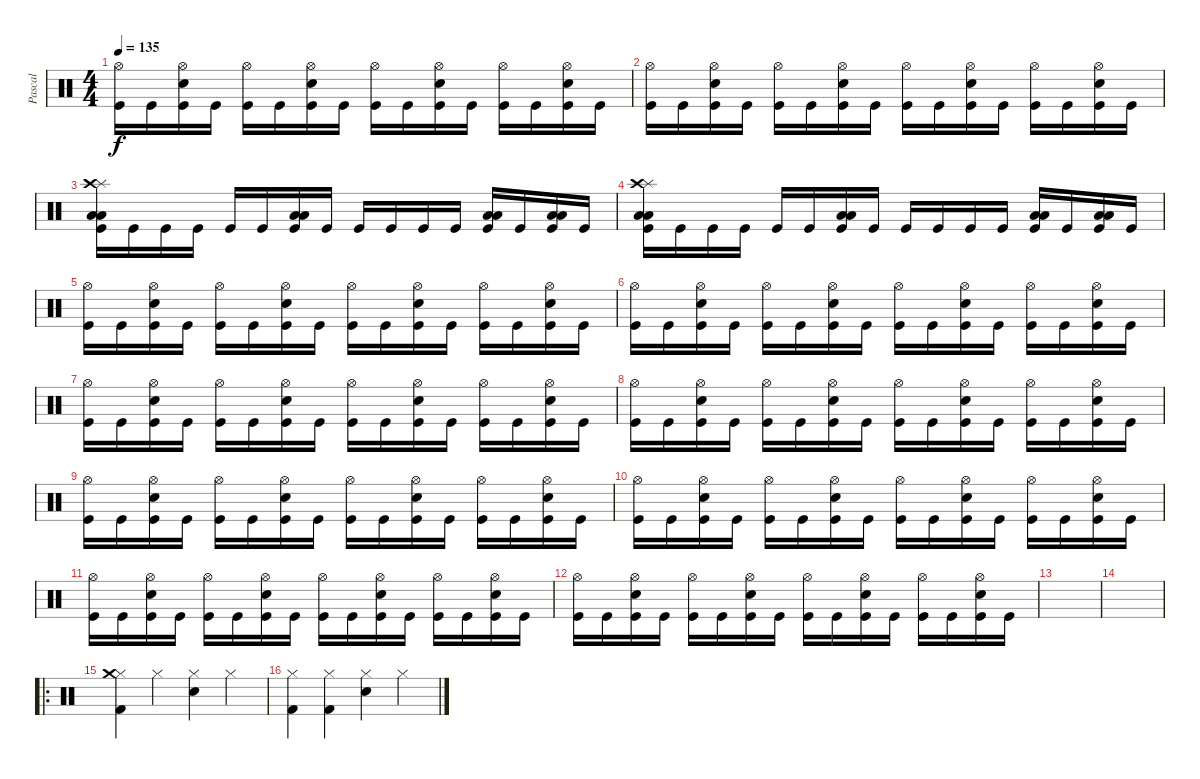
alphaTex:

\track ("Pascal" "Pascal") {instrument percussion}
\staff {score}
\articulation defaults
\ts (4 4)
\tempo 135
\clef neutral
\ks c
("Kick (hit)" "Hi-Hat (open)").16{dy f} "Kick (hit)".16 ("Electric Snare (hit)" "Kick (hit)" "Hi-Hat (open)").16 "Kick (hit)".16 ("Kick (hit)" "Hi-Hat (open)").16 "Kick (hit)".16 ("Electric Snare (hit)" "Kick (hit)" "Hi-Hat (open)").16 "Kick (hit)".16 ("Kick (hit)" "Hi-Hat (open)").16 "Kick (hit)".16 ("Electric Snare (hit)" "Kick (hit)" "Hi-Hat (open)").16 "Kick (hit)".16 ("Kick (hit)" "Hi-Hat (open)").16 "Kick (hit)".16 ("Electric Snare (hit)" "Kick (hit)" "Hi-Hat (open)").16 "Kick (hit)".16 |
("Kick (hit)" "Hi-Hat (open)").16 "Kick (hit)".16 ("Electric Snare (hit)" "Kick (hit)" "Hi-Hat (open)").16 "Kick (hit)".16 ("Kick (hit)" "Hi-Hat (open)").16 "Kick (hit)".16 ("Electric Snare (hit)" "Kick (hit)" "Hi-Hat (open)").16 "Kick (hit)".16 ("Kick (hit)" "Hi-Hat (open)").16 "Kick (hit)".16 ("Electric Snare (hit)" "Kick (hit)" "Hi-Hat (open)").16 "Kick (hit)".16 ("Kick (hit)" "Hi-Hat (open)").16 "Kick (hit)".16 ("Electric Snare (hit)" "Kick (hit)" "Hi-Hat (open)").16 "Kick (hit)".16 |
("Low Floor Tom (hit)" "Kick (hit)" "Splash (hit)" "Low Floor Tom (hit)" "Crash high (hit)").16 "Kick (hit)".16 "Kick (hit)".16 "Kick (hit)".16 "Kick (hit)".16 "Kick (hit)".16 ("Low Floor Tom (hit)" "Kick (hit)" "Low Floor Tom (hit)").16 "Kick (hit)".16 "Kick (hit)".16 "Kick (hit)".16 "Kick (hit)".16 "Kick (hit)".16 ("Low Floor Tom (hit)" "Kick (hit)" "Low Floor Tom (hit)").16 "Kick (hit)".16 ("Low Floor Tom (hit)" "Kick (hit)" "Low Floor Tom (hit)").16 "Kick (hit)".16 |
("Low Floor Tom (hit)" "Kick (hit)" "Splash (hit)" "Low Floor Tom (hit)" "Crash high (hit)").16 "Kick (hit)".16 "Kick (hit)".16 "Kick (hit)".16 "Kick (hit)".16 "Kick (hit)".16 ("Low Floor Tom (hit)" "Kick (hit)" "Low Floor Tom (hit)").16 "Kick (hit)".16 "Kick (hit)".16 "Kick (hit)".16 "Kick (hit)".16 "Kick (hit)".16 ("Low Floor Tom (hit)" "Kick (hit)" "Low Floor Tom (hit)").16 "Kick (hit)".16 ("Low Floor Tom (hit)" "Kick (hit)" "Low Floor Tom (hit)").16 "Kick (hit)".16 |
("Kick (hit)" "Hi-Hat (open)").16 "Kick (hit)".16 ("Electric Snare (hit)" "Kick (hit)" "Hi-Hat (open)").16 "Kick (hit)".16 ("Kick (hit)" "Hi-Hat (open)").16 "Kick (hit)".16 ("Electric Snare (hit)" "Kick (hit)" "Hi-Hat (open)").16 "Kick (hit)".16 ("Kick (hit)" "Hi-Hat (open)").16 "Kick (hit)".16 ("Electric Snare (hit)" "Kick (hit)" "Hi-Hat (open)").16 "Kick (hit)".16 ("Kick (hit)" "Hi-Hat (open)").16 "Kick (hit)".16 ("Electric Snare (hit)" "Kick (hit)" "Hi-Hat (open)").16 "Kick (hit)".16 |
("Kick (hit)" "Hi-Hat (open)").16 "Kick (hit)".16 ("Electric Snare (hit)" "Kick (hit)" "Hi-Hat (open)").16 "Kick (hit)".16 ("Kick (hit)" "Hi-Hat (open)").16 "Kick (hit)".16 ("Electric Snare (hit)" "Kick (hit)" "Hi-Hat (open)").16 "Kick (hit)".16 ("Kick (hit)" "Hi-Hat (open)").16 "Kick (hit)".16 ("Electric Snare (hit)" "Kick (hit)" "Hi-Hat (open)").16 "Kick (hit)".16 ("Kick (hit)" "Hi-Hat (open)").16 "Kick (hit)".16 ("Electric Snare (hit)" "Kick (hit)" "Hi-Hat (open)").16 "Kick (hit)".16 |
("Kick (hit)" "Hi-Hat (open)").16 "Kick (hit)".16 ("Electric Snare (hit)" "Kick (hit)" "Hi-Hat (open)").16 "Kick (hit)".16 ("Kick (hit)" "Hi-Hat (open)").16 "Kick (hit)".16 ("Electric Snare (hit)" "Kick (hit)" "Hi-Hat (open)").16 "Kick (hit)".16 ("Kick (hit)" "Hi-Hat (open)").16 "Kick (hit)".16 ("Electric Snare (hit)" "Kick (hit)" "Hi-Hat (open)").16 "Kick (hit)".16 ("Kick (hit)" "Hi-Hat (open)").16 "Kick (hit)".16 ("Electric Snare (hit)" "Kick (hit)" "Hi-Hat (open)").16 "Kick (hit)".16 |
("Kick (hit)" "Hi-Hat (open)").16 "Kick (hit)".16 ("Electric Snare (hit)" "Kick (hit)" "Hi-Hat (open)").16 "Kick (hit)".16 ("Kick (hit)" "Hi-Hat (open)").16 "Kick (hit)".16 ("Electric Snare (hit)" "Kick (hit)" "Hi-Hat (open)").16 "Kick (hit)".16 ("Kick (hit)" "Hi-Hat (open)").16 "Kick (hit)".16 ("Electric Snare (hit)" "Kick (hit)" "Hi-Hat (open)").16 "Kick (hit)".16 ("Kick (hit)" "Hi-Hat (open)").16 "Kick (hit)".16 ("Electric Snare (hit)" "Kick (hit)" "Hi-Hat (open)").16 "Kick (hit)".16 |
("Kick (hit)" "Hi-Hat (open)").16 "Kick (hit)".16 ("Electric Snare (hit)" "Kick (hit)" "Hi-Hat (open)").16 "Kick (hit)".16 ("Kick (hit)" "Hi-Hat (open)").16 "Kick (hit)".16 ("Electric Snare (hit)" "Kick (hit)" "Hi-Hat (open)").16 "Kick (hit)".16 ("Kick (hit)" "Hi-Hat (open)").16 "Kick (hit)".16 ("Electric Snare (hit)" "Kick (hit)" "Hi-Hat (open)").16 "Kick (hit)".16 ("Kick (hit)" "Hi-Hat (open)").16 "Kick (hit)".16 ("Electric Snare (hit)" "Kick (hit)" "Hi-Hat (open)").16 "Kick (hit)".16 |
("Kick (hit)" "Hi-Hat (open)").16 "Kick (hit)".16 ("Electric Snare (hit)" "Kick (hit)" "Hi-Hat (open)").16 "Kick (hit)".16 ("Kick (hit)" "Hi-Hat (open)").16 "Kick (hit)".16 ("Electric Snare (hit)" "Kick (hit)" "Hi-Hat (open)").16 "Kick (hit)".16 ("Kick (hit)" "Hi-Hat (open)").16 "Kick (hit)".16 ("Electric Snare (hit)" "Kick (hit)" "Hi-Hat (open)").16 "Kick (hit)".16 ("Kick (hit)" "Hi-Hat (open)").16 "Kick (hit)".16 ("Electric Snare (hit)" "Kick (hit)" "Hi-Hat (open)").16 "Kick (hit)".16 |
("Kick (hit)" "Hi-Hat (open)").16 "Kick (hit)".16 ("Electric Snare (hit)" "Kick (hit)" "Hi-Hat (open)").16 "Kick (hit)".16 ("Kick (hit)" "Hi-Hat (open)").16 "Kick (hit)".16 ("Electric Snare (hit)" "Kick (hit)" "Hi-Hat (open)").16 "Kick (hit)".16 ("Kick (hit)" "Hi-Hat (open)").16 "Kick (hit)".16 ("Electric Snare (hit)" "Kick (hit)" "Hi-Hat (open)").16 "Kick (hit)".16 ("Kick (hit)" "Hi-Hat (open)").16 "Kick (hit)".16 ("Electric Snare (hit)" "Kick (hit)" "Hi-Hat (open)").16 "Kick (hit)".16 |
("Kick (hit)" "Hi-Hat (open)").16 "Kick (hit)".16 ("Electric Snare (hit)" "Kick (hit)" "Hi-Hat (open)").16 "Kick (hit)".16 ("Kick (hit)" "Hi-Hat (open)").16 "Kick (hit)".16 ("Electric Snare (hit)" "Kick (hit)" "Hi-Hat (open)").16 "Kick (hit)".16 ("Kick (hit)" "Hi-Hat (open)").16 "Kick (hit)".16 ("Electric Snare (hit)" "Kick (hit)" "Hi-Hat (open)").16 "Kick (hit)".16 ("Kick (hit)" "Hi-Hat (open)").16 "Kick (hit)".16 ("Electric Snare (hit)" "Kick (hit)" "Hi-Hat (open)").16 "Kick (hit)".16 |
|
|
\ro
("Kick (hit) 2" "Hi-Hat (closed)" "Crash medium (hit)").4 "Hi-Hat (closed)".4 ("Snare (hit) 2" "Hi-Hat (closed)").4 "Hi-Hat (closed)".4 |
("Kick (hit) 2" "Hi-Hat (closed)").4 ("Kick (hit) 2" "Hi-Hat (closed)").4 ("Snare (hit) 2" "Hi-Hat (closed)").4 "Hi-Hat (closed)".4
